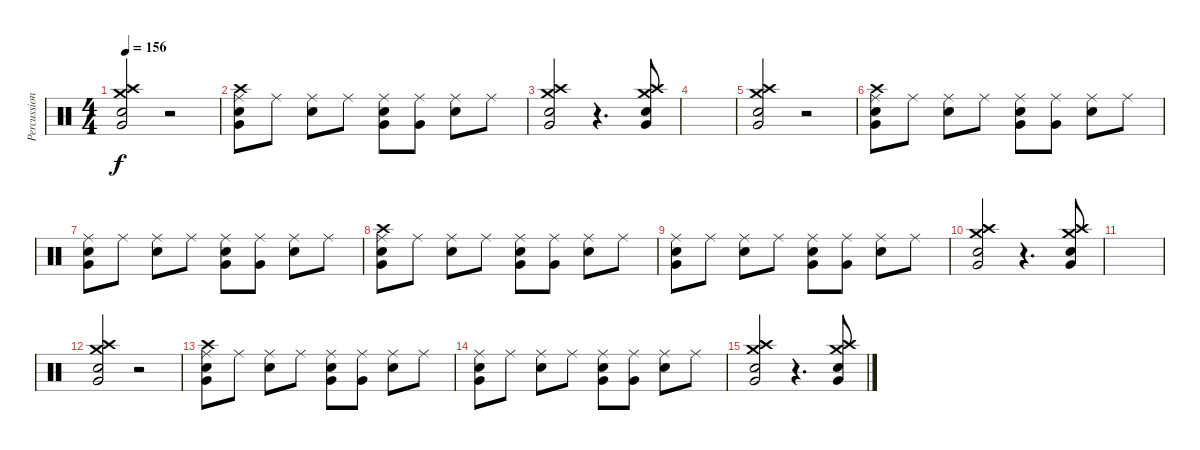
\track ("Percussions" "Percussion") {instrument percussion}
\staff {score}
\articulation defaults
\ts (4 4)
\tempo 156
\clef neutral
\ks c
("Very Low Tom (hit)" "Crash high (hit)" "Crash medium (hit)" "Electric Snare (hit)").2{dy f} r.2 |
("Very Low Tom (hit)" "Crash high (hit)" "Electric Snare (hit)" "Ride (middle)").8 "Ride (middle)".8 ("Electric Snare (hit)" "Ride (middle)").8 "Ride (middle)".8 ("Very Low Tom (hit)" "Electric Snare (hit)" "Ride (middle)").8 ("Very Low Tom (hit)" "Ride (middle)").8 ("Electric Snare (hit)" "Ride (middle)").8 "Ride (middle)".8 |
("Very Low Tom (hit)" "Crash high (hit)" "Crash medium (hit)" "Electric Snare (hit)").2 r.4{d} ("Very Low Tom (hit)" "Crash high (hit)" "Crash medium (hit)" "Electric Snare (hit)").8 |
|
("Very Low Tom (hit)" "Crash high (hit)" "Crash medium (hit)" "Electric Snare (hit)").2 r.2 |
("Very Low Tom (hit)" "Crash high (hit)" "Electric Snare (hit)" "Ride (middle)").8 "Ride (middle)".8 ("Electric Snare (hit)" "Ride (middle)").8 "Ride (middle)".8 ("Very Low Tom (hit)" "Electric Snare (hit)" "Ride (middle)").8 ("Very Low Tom (hit)" "Ride (middle)").8 ("Electric Snare (hit)" "Ride (middle)").8 "Ride (middle)".8 |
("Very Low Tom (hit)" "Electric Snare (hit)" "Ride (middle)").8 "Ride (middle)".8 ("Electric Snare (hit)" "Ride (middle)").8 "Ride (middle)".8 ("Very Low Tom (hit)" "Electric Snare (hit)" "Ride (middle)").8 ("Very Low Tom (hit)" "Ride (middle)").8 ("Electric Snare (hit)" "Ride (middle)").8 "Ride (middle)".8 |
("Very Low Tom (hit)" "Crash high (hit)" "Electric Snare (hit)" "Ride (middle)").8 "Ride (middle)".8 ("Electric Snare (hit)" "Ride (middle)").8 "Ride (middle)".8 ("Very Low Tom (hit)" "Electric Snare (hit)" "Ride (middle)").8 ("Very Low Tom (hit)" "Ride (middle)").8 ("Electric Snare (hit)" "Ride (middle)").8 "Ride (middle)".8 |
("Very Low Tom (hit)" "Electric Snare (hit)" "Ride (middle)").8 "Ride (middle)".8 ("Electric Snare (hit)" "Ride (middle)").8 "Ride (middle)".8 ("Very Low Tom (hit)" "Electric Snare (hit)" "Ride (middle)").8 ("Very Low Tom (hit)" "Ride (middle)").8 ("Electric Snare (hit)" "Ride (middle)").8 "Ride (middle)".8 |
("Very Low Tom (hit)" "Crash high (hit)" "Crash medium (hit)" "Electric Snare (hit)").2 r.4{d} ("Very Low Tom (hit)" "Crash high (hit)" "Crash medium (hit)" "Electric Snare (hit)").8 |
|
("Very Low Tom (hit)" "Crash high (hit)" "Crash medium (hit)" "Electric Snare (hit)").2 r.2 |
("Very Low Tom (hit)" "Crash high (hit)" "Electric Snare (hit)" "Ride (middle)").8 "Ride (middle)".8 ("Electric Snare (hit)" "Ride (middle)").8 "Ride (middle)".8 ("Very Low Tom (hit)" "Electric Snare (hit)" "Ride (middle)").8 ("Very Low Tom (hit)" "Ride (middle)").8 ("Electric Snare (hit)" "Ride (middle)").8 "Ride (middle)".8 |
("Very Low Tom (hit)" "Electric Snare (hit)" "Ride (middle)").8 "Ride (middle)".8 ("Electric Snare (hit)" "Ride (middle)").8 "Ride (middle)".8 ("Very Low Tom (hit)" "Electric Snare (hit)" "Ride (middle)").8 ("Very Low Tom (hit)" "Ride (middle)").8 ("Electric Snare (hit)" "Ride (middle)").8 "Ride (middle)".8 |
("Very Low Tom (hit)" "Crash high (hit)" "Crash medium (hit)" "Electric Snare (hit)").2 r.4{d} ("Very Low Tom (hit)" "Crash high (hit)" "Crash medium (hit)" "Electric Snare (hit)").8
